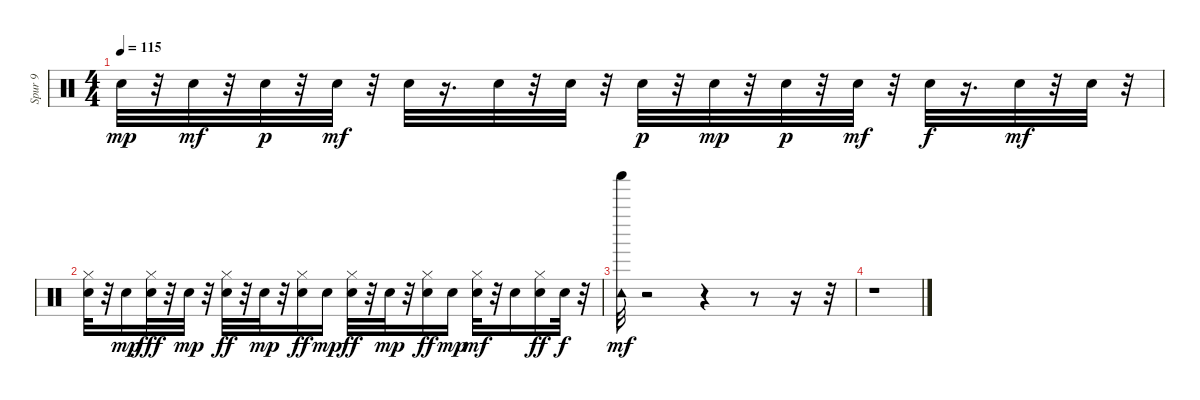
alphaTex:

\track ("Spur 9" "Spur 9") {instrument percussion}
\staff {score}
\articulation defaults
\ts (4 4)
\tempo 115
\clef neutral
\ks c "Electric Snare (hit)".32{dy mp}
r.32 "Electric Snare (hit)".32{dy mf} r.32 "Electric Snare (hit)".32{dy p} r.32 "Electric Snare (hit)".32{dy mf} r.32 "Electric Snare (hit)".32 r.16{d} "Electric Snare (hit)".32 r.32 "Electric Snare (hit)".32 r.32 "Electric Snare (hit)".32{dy p} r.32 "Electric Snare (hit)".32{dy mp} r.32 "Electric Snare (hit)".32{dy p} r.32 "Electric Snare (hit)".32{dy mf} r.32 "Electric Snare (hit)".32{dy f} r.16{d} "Electric Snare (hit)".32{dy mf} r.32 "Electric Snare (hit)".32 r.32 |
("Electric Snare (hit)" "Hi-Hat (closed)").32{volume 14} r.32 "Electric Snare (hit)".16{dy mp} ("Electric Snare (hit)" "Hi-Hat (closed)").32{dy fff} r.32 "Electric Snare (hit)".32{dy mp} r.32 ("Electric Snare (hit)" "Hi-Hat (closed)").32{dy ff} r.32 "Electric Snare (hit)".32{dy mp} r.32 ("Electric Snare (hit)" "Hi-Hat (closed)").16{dy ff} "Electric Snare (hit)".16{dy mp} ("Electric Snare (hit)" "Hi-Hat (closed)").32{dy ff} r.32 "Electric Snare (hit)".32{dy mp} r.32 ("Electric Snare (hit)" "Hi-Hat (closed)").16{dy ff} "Electric Snare (hit)".16{dy mp} ("Electric Snare (hit)" "Hi-Hat (closed)").32{dy mf} r.32 "Electric Snare (hit)".16 ("Electric Snare (hit)" "Hi-Hat (closed)").16{dy ff} "Electric Snare (hit)".32{dy f} r.32 |
("Tambourine (hit)" "Shaker (hit)").32{dy mf volume 14} r.2 r.4 r.8 r.16 r.32 |
r.1
